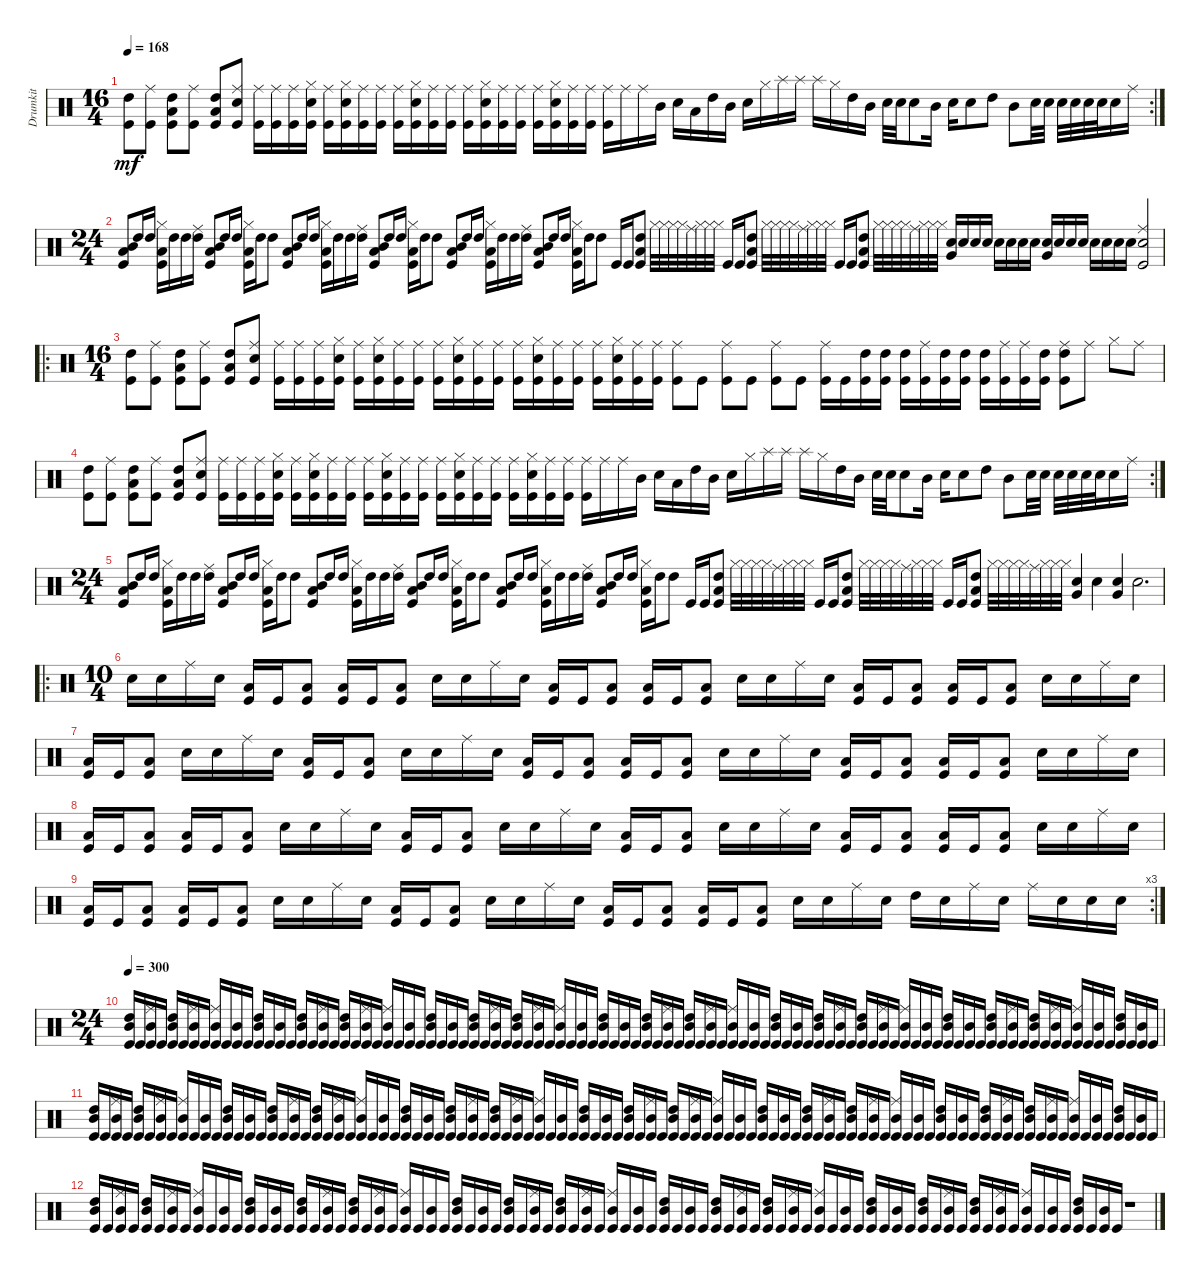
\track ("Drumkit" "Drumkit") {instrument percussion}
\staff {score}
\articulation defaults
\rc 2
\ts (16 4)
\tempo 168
\clef neutral
\ks c
("Kick (hit)" "High Tom (hit)").8{dy mf} ("Kick (hit)" "Ride (middle)").8 ("Kick (hit)" "Low Tom (hit)" "High Tom (hit)").8 ("Kick (hit)" "Ride (middle)").8 ("Kick (hit)" "High Tom (hit)" "Low Tom (hit)").8 ("Kick (hit)" "Ride (middle)" "Snare (hit) 2").8 ("Kick (hit)" "Ride (middle)").16 ("Kick (hit)" "Ride (middle)").16 ("Kick (hit)" "Ride (middle)").16 ("Kick (hit)" "Snare (hit) 2" "Hi-Hat (closed)").16 ("Kick (hit)" "Ride (middle)").16 ("Kick (hit)" "Hi-Hat (closed)" "Snare (hit) 2").16 ("Kick (hit)" "Ride (middle)").16 ("Kick (hit)" "Ride (middle)").16 ("Kick (hit)" "Ride (middle)").16 ("Kick (hit)" "Snare (hit) 2" "Hi-Hat (closed)").16 ("Kick (hit)" "Ride (middle)").16 ("Kick (hit)" "Ride (middle)").16 ("Kick (hit)" "Ride (middle)").16 ("Kick (hit)" "Hi-Hat (closed)" "Snare (hit) 2").16 ("Kick (hit)" "Ride (middle)").16 ("Kick (hit)" "Ride (middle)").16 ("Kick (hit)" "Ride (middle)").16 ("Kick (hit)" "Hi-Hat (closed)" "Snare (hit) 2").16 ("Kick (hit)" "Ride (middle)").16 ("Kick (hit)" "Ride (middle)").16 ("Kick (hit)" "Ride (middle)").16 "Ride (middle)".16 "Ride (middle)".16 "Mid Tom (hit)".16 "Snare (hit) 2".16 "Low Tom (hit)".16 "High Tom (hit)".16 "Mid Tom (hit)".16 "Snare (hit) 2".16 "Hi-Hat (closed)".16 "Splash (hit)".16 "Splash (hit)".16 "Splash (hit)".16 "Hi-Hat (closed)".16 "High Tom (hit)".16 "Mid Tom (hit)".16 "Snare (hit) 2".32 "Snare (hit) 2".32 "Snare (hit) 2".8 "Mid Tom (hit)".16 "Snare (hit) 2".16 "Snare (hit) 2".8 "High Tom (hit)".8 "Mid Tom (hit)".8 "Snare (hit) 2".32 "Snare (hit) 2".32 "Snare (hit) 2".32 "Snare (hit) 2".32 "Snare (hit) 2".32 "Snare (hit) 2".32 "Snare (hit) 2".16 "Ride (middle)".16 |
\ts (24 4)
("Kick (hit)" "Mid Tom (hit)" "Low Tom (hit)").8 "High Tom (hit)".16 "High Tom (hit)".16 ("Hi-Hat (closed)" "Low Tom (hit)" "Kick (hit)").16 "High Tom (hit)".16 "High Tom (hit)".16 ("High Tom (hit)" "Ride (middle)").16 ("Kick (hit)" "Mid Tom (hit)" "Low Tom (hit)").8 "High Tom (hit)".16 "High Tom (hit)".16 ("Hi-Hat (closed)" "Low Tom (hit)" "Kick (hit)").16 "High Tom (hit)".16 "High Tom (hit)".8 ("Kick (hit)" "Mid Tom (hit)" "Low Tom (hit)").8 "High Tom (hit)".16 "High Tom (hit)".16 ("Hi-Hat (closed)" "Low Tom (hit)" "Kick (hit)").16 "High Tom (hit)".16 "High Tom (hit)".16 ("High Tom (hit)" "Ride (middle)").16 ("Kick (hit)" "Mid Tom (hit)" "Low Tom (hit)").8 "High Tom (hit)".16 "High Tom (hit)".16 ("Hi-Hat (closed)" "Low Tom (hit)" "Kick (hit)").16 "High Tom (hit)".16 "High Tom (hit)".8 ("Kick (hit)" "Mid Tom (hit)" "Low Tom (hit)").8 "High Tom (hit)".16 "High Tom (hit)".16 ("Hi-Hat (closed)" "Low Tom (hit)" "Kick (hit)").16 "High Tom (hit)".16 "High Tom (hit)".16 ("High Tom (hit)" "Ride (middle)").16 ("Kick (hit)" "Mid Tom (hit)" "Low Tom (hit)").8 "High Tom (hit)".16 "High Tom (hit)".16 ("Hi-Hat (closed)" "Low Tom (hit)" "Kick (hit)").16 "High Tom (hit)".16 "High Tom (hit)".8 "Kick (hit)".16 "Kick (hit)".16 ("Kick (hit)" "Low Tom (hit)" "High Tom (hit)").8 "Hi-Hat (closed)".32 "Hi-Hat (closed)".32 "Hi-Hat (closed)".32 "Hi-Hat (closed)".32 "Ride (middle)".32 "Hi-Hat (closed)".32 "Hi-Hat (closed)".32 "Hi-Hat (closed)".32 "Kick (hit)".16 "Kick (hit)".16 ("Kick (hit)" "High Tom (hit)" "Low Tom (hit)").8 "Hi-Hat (closed)".32 "Hi-Hat (closed)".32 "Hi-Hat (closed)".32 "Hi-Hat (closed)".32 "Ride (middle)".32 "Hi-Hat (closed)".32 "Hi-Hat (closed)".32 "Hi-Hat (closed)".32 "Kick (hit)".16 "Kick (hit)".16 ("Kick (hit)" "Low Tom (hit)" "High Tom (hit)").8 "Hi-Hat (closed)".32 "Hi-Hat (closed)".32 "Hi-Hat (closed)".32 "Hi-Hat (closed)".32 "Ride (middle)".32 "Hi-Hat (closed)".32 "Hi-Hat (closed)".32 "Hi-Hat (closed)".32 ("Snare (hit) 2" "Very Low Tom (hit)").16 "Snare (hit) 2".16 "Snare (hit) 2".16 "Snare (hit) 2".16 "Snare (hit) 2".16 "Snare (hit) 2".16 "Snare (hit) 2".16 "Snare (hit) 2".16 ("Snare (hit) 2" "Very Low Tom (hit)").16 "Snare (hit) 2".16 "Snare (hit) 2".16 "Snare (hit) 2".16 "Snare (hit) 2".16 "Snare (hit) 2".16 "Snare (hit) 2".16 "Snare (hit) 2".16 ("Snare (hit) 2" "Kick (hit)" "Ride (middle)").2 |
\ro
\ts (16 4)
("Kick (hit)" "High Tom (hit)").8 ("Kick (hit)" "Ride (middle)").8 ("Kick (hit)" "Low Tom (hit)" "High Tom (hit)").8 ("Kick (hit)" "Ride (middle)").8 ("Kick (hit)" "High Tom (hit)" "Low Tom (hit)").8 ("Kick (hit)" "Ride (middle)" "Snare (hit) 2").8 ("Kick (hit)" "Ride (middle)").16 ("Kick (hit)" "Ride (middle)").16 ("Kick (hit)" "Ride (middle)").16 ("Kick (hit)" "Snare (hit) 2" "Hi-Hat (closed)").16 ("Kick (hit)" "Ride (middle)").16 ("Kick (hit)" "Hi-Hat (closed)" "Snare (hit) 2").16 ("Kick (hit)" "Ride (middle)").16 ("Kick (hit)" "Ride (middle)").16 ("Kick (hit)" "Ride (middle)").16 ("Kick (hit)" "Snare (hit) 2" "Hi-Hat (closed)").16 ("Kick (hit)" "Ride (middle)").16 ("Kick (hit)" "Ride (middle)").16 ("Kick (hit)" "Ride (middle)").16 ("Kick (hit)" "Hi-Hat (closed)" "Snare (hit) 2").16 ("Kick (hit)" "Ride (middle)").16 ("Kick (hit)" "Ride (middle)").16 ("Kick (hit)" "Ride (middle)").16 ("Kick (hit)" "Hi-Hat (closed)" "Snare (hit) 2").16 ("Kick (hit)" "Ride (middle)").16 ("Kick (hit)" "Ride (middle)").16 ("Kick (hit)" "Ride (middle)").8 "Kick (hit)".8 ("Kick (hit)" "Ride (middle)").8 "Kick (hit)".8 ("Kick (hit)" "Ride (middle)").8 "Kick (hit)".8 ("Kick (hit)" "Ride (middle)").16 "Kick (hit)".16 ("Kick (hit)" "High Tom (hit)").16 ("Kick (hit)" "High Tom (hit)").16 ("Kick (hit)" "High Tom (hit)").16 ("Kick (hit)" "Ride (middle)").16 ("Kick (hit)" "High Tom (hit)").16 ("Kick (hit)" "High Tom (hit)").16 ("Kick (hit)" "High Tom (hit)").16 ("Kick (hit)" "Ride (middle)").16 ("Kick (hit)" "Ride (middle)").16 ("Kick (hit)" "High Tom (hit)").16 ("Kick (hit)" "High Tom (hit)" "Ride (middle)").8 "Ride (middle)".8 "Hi-Hat (closed)".8 "Ride (middle)".8 |
\rc 2
("Kick (hit)" "High Tom (hit)").8 ("Kick (hit)" "Ride (middle)").8 ("Kick (hit)" "Low Tom (hit)" "High Tom (hit)").8 ("Kick (hit)" "Ride (middle)").8 ("Kick (hit)" "High Tom (hit)" "Low Tom (hit)").8 ("Kick (hit)" "Ride (middle)" "Snare (hit) 2").8 ("Kick (hit)" "Ride (middle)").16 ("Kick (hit)" "Ride (middle)").16 ("Kick (hit)" "Ride (middle)").16 ("Kick (hit)" "Snare (hit) 2" "Hi-Hat (closed)").16 ("Kick (hit)" "Ride (middle)").16 ("Kick (hit)" "Hi-Hat (closed)" "Snare (hit) 2").16 ("Kick (hit)" "Ride (middle)").16 ("Kick (hit)" "Ride (middle)").16 ("Kick (hit)" "Ride (middle)").16 ("Kick (hit)" "Snare (hit) 2" "Hi-Hat (closed)").16 ("Kick (hit)" "Ride (middle)").16 ("Kick (hit)" "Ride (middle)").16 ("Kick (hit)" "Ride (middle)").16 ("Kick (hit)" "Hi-Hat (closed)" "Snare (hit) 2").16 ("Kick (hit)" "Ride (middle)").16 ("Kick (hit)" "Ride (middle)").16 ("Kick (hit)" "Ride (middle)").16 ("Kick (hit)" "Hi-Hat (closed)" "Snare (hit) 2").16 ("Kick (hit)" "Ride (middle)").16 ("Kick (hit)" "Ride (middle)").16 ("Kick (hit)" "Ride (middle)").16 "Ride (middle)".16 "Ride (middle)".16 "Mid Tom (hit)".16 "Snare (hit) 2".16 "Low Tom (hit)".16 "High Tom (hit)".16 "Mid Tom (hit)".16 "Snare (hit) 2".16 "Hi-Hat (closed)".16 "Splash (hit)".16 "Splash (hit)".16 "Splash (hit)".16 "Hi-Hat (closed)".16 "High Tom (hit)".16 "Mid Tom (hit)".16 "Snare (hit) 2".32 "Snare (hit) 2".32 "Snare (hit) 2".8 "Mid Tom (hit)".16 "Snare (hit) 2".16 "Snare (hit) 2".8 "High Tom (hit)".8 "Mid Tom (hit)".8 "Snare (hit) 2".32 "Snare (hit) 2".32 "Snare (hit) 2".32 "Snare (hit) 2".32 "Snare (hit) 2".32 "Snare (hit) 2".32 "Snare (hit) 2".16 "Ride (middle)".16 |
\ts (24 4)
("Kick (hit)" "Mid Tom (hit)" "Low Tom (hit)").8 "High Tom (hit)".16 "High Tom (hit)".16 ("Hi-Hat (closed)" "Low Tom (hit)" "Kick (hit)").16 "High Tom (hit)".16 "High Tom (hit)".16 ("High Tom (hit)" "Ride (middle)").16 ("Kick (hit)" "Mid Tom (hit)" "Low Tom (hit)").8 "High Tom (hit)".16 "High Tom (hit)".16 ("Hi-Hat (closed)" "Low Tom (hit)" "Kick (hit)").16 "High Tom (hit)".16 "High Tom (hit)".8 ("Kick (hit)" "Mid Tom (hit)" "Low Tom (hit)").8 "High Tom (hit)".16 "High Tom (hit)".16 ("Hi-Hat (closed)" "Low Tom (hit)" "Kick (hit)").16 "High Tom (hit)".16 "High Tom (hit)".16 ("High Tom (hit)" "Ride (middle)").16 ("Kick (hit)" "Mid Tom (hit)" "Low Tom (hit)").8 "High Tom (hit)".16 "High Tom (hit)".16 ("Hi-Hat (closed)" "Low Tom (hit)" "Kick (hit)").16 "High Tom (hit)".16 "High Tom (hit)".8 ("Kick (hit)" "Mid Tom (hit)" "Low Tom (hit)").8 "High Tom (hit)".16 "High Tom (hit)".16 ("Hi-Hat (closed)" "Low Tom (hit)" "Kick (hit)").16 "High Tom (hit)".16 "High Tom (hit)".16 ("High Tom (hit)" "Ride (middle)").16 ("Kick (hit)" "Mid Tom (hit)" "Low Tom (hit)").8 "High Tom (hit)".16 "High Tom (hit)".16 ("Hi-Hat (closed)" "Low Tom (hit)" "Kick (hit)").16 "High Tom (hit)".16 "High Tom (hit)".8 "Kick (hit)".16 "Kick (hit)".16 ("Kick (hit)" "Low Tom (hit)" "High Tom (hit)").8 "Hi-Hat (closed)".32 "Hi-Hat (closed)".32 "Hi-Hat (closed)".32 "Hi-Hat (closed)".32 "Ride (middle)".32 "Hi-Hat (closed)".32 "Hi-Hat (closed)".32 "Hi-Hat (closed)".32 "Kick (hit)".16 "Kick (hit)".16 ("Kick (hit)" "High Tom (hit)" "Low Tom (hit)").8 "Hi-Hat (closed)".32 "Hi-Hat (closed)".32 "Hi-Hat (closed)".32 "Hi-Hat (closed)".32 "Ride (middle)".32 "Hi-Hat (closed)".32 "Hi-Hat (closed)".32 "Hi-Hat (closed)".32 "Kick (hit)".16 "Kick (hit)".16 ("Kick (hit)" "High Tom (hit)" "Low Tom (hit)").8 "Hi-Hat (closed)".32 "Hi-Hat (closed)".32 "Hi-Hat (closed)".32 "Hi-Hat (closed)".32 "Ride (middle)".32 "Hi-Hat (closed)".32 "Hi-Hat (closed)".32 "Hi-Hat (closed)".32 ("Snare (hit) 2" "Very Low Tom (hit)").4 "Snare (hit) 2".4 ("Snare (hit) 2" "Very Low Tom (hit)").4 "Snare (hit) 2".2{d} |
\ro
\ts (10 4)
"Snare (hit) 2".16 "Snare (hit) 2".16 "Ride (middle)".16 "Snare (hit) 2".16 ("Kick (hit)" "Low Tom (hit)").16 "Kick (hit)".16 ("Kick (hit)" "Low Tom (hit)").8 ("Kick (hit)" "Low Tom (hit)").16 "Kick (hit)".16 ("Kick (hit)" "Low Tom (hit)").8 "Snare (hit) 2".16 "Snare (hit) 2".16 "Ride (middle)".16 "Snare (hit) 2".16 ("Kick (hit)" "Low Tom (hit)").16 "Kick (hit)".16 ("Kick (hit)" "Low Tom (hit)").8 ("Kick (hit)" "Low Tom (hit)").16 "Kick (hit)".16 ("Kick (hit)" "Low Tom (hit)").8 "Snare (hit) 2".16 "Snare (hit) 2".16 "Ride (middle)".16 "Snare (hit) 2".16 ("Kick (hit)" "Low Tom (hit)").16 "Kick (hit)".16 ("Kick (hit)" "Low Tom (hit)").8 ("Kick (hit)" "Low Tom (hit)").16 "Kick (hit)".16 ("Kick (hit)" "Low Tom (hit)").8 "Snare (hit) 2".16 "Snare (hit) 2".16 "Ride (middle)".16 "Snare (hit) 2".16 |
("Kick (hit)" "Low Tom (hit)").16 "Kick (hit)".16 ("Kick (hit)" "Low Tom (hit)").8 "Snare (hit) 2".16 "Snare (hit) 2".16 "Ride (middle)".16 "Snare (hit) 2".16 ("Kick (hit)" "Low Tom (hit)").16 "Kick (hit)".16 ("Kick (hit)" "Low Tom (hit)").8 "Snare (hit) 2".16 "Snare (hit) 2".16 "Ride (middle)".16 "Snare (hit) 2".16 ("Kick (hit)" "Low Tom (hit)").16 "Kick (hit)".16 ("Kick (hit)" "Low Tom (hit)").8 ("Kick (hit)" "Low Tom (hit)").16 "Kick (hit)".16 ("Kick (hit)" "Low Tom (hit)").8 "Snare (hit) 2".16 "Snare (hit) 2".16 "Ride (middle)".16 "Snare (hit) 2".16 ("Kick (hit)" "Low Tom (hit)").16 "Kick (hit)".16 ("Kick (hit)" "Low Tom (hit)").8 ("Kick (hit)" "Low Tom (hit)").16 "Kick (hit)".16 ("Kick (hit)" "Low Tom (hit)").8 "Snare (hit) 2".16 "Snare (hit) 2".16 "Ride (middle)".16 "Snare (hit) 2".16 |
("Kick (hit)" "Low Tom (hit)").16 "Kick (hit)".16 ("Kick (hit)" "Low Tom (hit)").8 ("Kick (hit)" "Low Tom (hit)").16 "Kick (hit)".16 ("Kick (hit)" "Low Tom (hit)").8 "Snare (hit) 2".16 "Snare (hit) 2".16 "Ride (middle)".16 "Snare (hit) 2".16 ("Kick (hit)" "Low Tom (hit)").16 "Kick (hit)".16 ("Kick (hit)" "Low Tom (hit)").8 "Snare (hit) 2".16 "Snare (hit) 2".16 "Ride (middle)".16 "Snare (hit) 2".16 ("Kick (hit)" "Low Tom (hit)").16 "Kick (hit)".16 ("Kick (hit)" "Low Tom (hit)").8 "Snare (hit) 2".16 "Snare (hit) 2".16 "Ride (middle)".16 "Snare (hit) 2".16 ("Kick (hit)" "Low Tom (hit)").16 "Kick (hit)".16 ("Kick (hit)" "Low Tom (hit)").8 ("Kick (hit)" "Low Tom (hit)").16 "Kick (hit)".16 ("Kick (hit)" "Low Tom (hit)").8 "Snare (hit) 2".16 "Snare (hit) 2".16 "Ride (middle)".16 "Snare (hit) 2".16 |
\rc 3
("Kick (hit)" "Low Tom (hit)").16 "Kick (hit)".16 ("Kick (hit)" "Low Tom (hit)").8 ("Kick (hit)" "Low Tom (hit)").16 "Kick (hit)".16 ("Kick (hit)" "Low Tom (hit)").8 "Snare (hit) 2".16 "Snare (hit) 2".16 "Ride (middle)".16 "Snare (hit) 2".16 ("Kick (hit)" "Low Tom (hit)").16 "Kick (hit)".16 ("Kick (hit)" "Low Tom (hit)").8 "Snare (hit) 2".16 "Snare (hit) 2".16 "Ride (middle)".16 "Snare (hit) 2".16 ("Kick (hit)" "Low Tom (hit)").16 "Kick (hit)".16 ("Kick (hit)" "Low Tom (hit)").8 ("Kick (hit)" "Low Tom (hit)").16 "Kick (hit)".16 ("Kick (hit)" "Low Tom (hit)").8 "Snare (hit) 2".16 "Snare (hit) 2".16 "Ride (middle)".16 "Snare (hit) 2".16 "High Tom (hit)".16 "Snare (hit) 2".16 "Ride (middle)".16 "Snare (hit) 2".16 "Ride (middle)".16 "Snare (hit) 2".16 "Snare (hit) 2".16 "Snare (hit) 2".16 |
\ts (24 4)
\tempo 300
("Kick (hit)" "High Tom (hit)" "Mid Tom (hit)").16 "Kick (hit)".16 ("Kick (hit)" "Mid Tom (hit)" "Ride (middle)").16 "Kick (hit)".16 ("Kick (hit)" "Mid Tom (hit)" "High Tom (hit)").16 "Kick (hit)".16 ("Kick (hit)" "Mid Tom (hit)" "Ride (middle)").16 "Kick (hit)".16 ("Kick (hit)" "Ride (middle)" "Mid Tom (hit)").16 "Kick (hit)".16 ("Kick (hit)" "Mid Tom (hit)").16 "Kick (hit)".16 ("Kick (hit)" "Mid Tom (hit)" "High Tom (hit)").16 "Kick (hit)".16 ("Kick (hit)" "Mid Tom (hit)").16 "Kick (hit)".16 ("Kick (hit)" "High Tom (hit)" "Mid Tom (hit)").16 "Kick (hit)".16 ("Kick (hit)" "Mid Tom (hit)" "Ride (middle)").16 "Kick (hit)".16 ("Kick (hit)" "Mid Tom (hit)" "High Tom (hit)").16 "Kick (hit)".16 ("Kick (hit)" "Mid Tom (hit)" "Ride (middle)").16 "Kick (hit)".16 ("Kick (hit)" "Ride (middle)" "Mid Tom (hit)").16 "Kick (hit)".16 ("Kick (hit)" "Mid Tom (hit)").16 "Kick (hit)".16 ("Kick (hit)" "Mid Tom (hit)" "High Tom (hit)").16 "Kick (hit)".16 ("Kick (hit)" "Mid Tom (hit)").16 "Kick (hit)".16 ("Kick (hit)" "High Tom (hit)" "Mid Tom (hit)").16 "Kick (hit)".16 ("Kick (hit)" "Mid Tom (hit)" "Ride (middle)").16 "Kick (hit)".16 ("Kick (hit)" "Mid Tom (hit)" "High Tom (hit)").16 "Kick (hit)".16 ("Kick (hit)" "Mid Tom (hit)" "Ride (middle)").16 "Kick (hit)".16 ("Kick (hit)" "Ride (middle)" "Mid Tom (hit)").16 "Kick (hit)".16 ("Kick (hit)" "Mid Tom (hit)").16 "Kick (hit)".16 ("Kick (hit)" "Mid Tom (hit)" "High Tom (hit)").16 "Kick (hit)".16 ("Kick (hit)" "Mid Tom (hit)").16 "Kick (hit)".16 ("Kick (hit)" "High Tom (hit)" "Mid Tom (hit)").16 "Kick (hit)".16 ("Kick (hit)" "Mid Tom (hit)" "Ride (middle)").16 "Kick (hit)".16 ("Kick (hit)" "Mid Tom (hit)" "High Tom (hit)").16 "Kick (hit)".16 ("Kick (hit)" "Mid Tom (hit)" "Ride (middle)").16 "Kick (hit)".16 ("Kick (hit)" "Ride (middle)" "Mid Tom (hit)").16 "Kick (hit)".16 ("Kick (hit)" "Mid Tom (hit)").16 "Kick (hit)".16 ("Kick (hit)" "Mid Tom (hit)" "High Tom (hit)").16 "Kick (hit)".16 ("Kick (hit)" "Mid Tom (hit)").16 "Kick (hit)".16 ("Kick (hit)" "High Tom (hit)" "Mid Tom (hit)").16 "Kick (hit)".16 ("Kick (hit)" "Mid Tom (hit)" "Ride (middle)").16 "Kick (hit)".16 ("Kick (hit)" "Mid Tom (hit)" "High Tom (hit)").16 "Kick (hit)".16 ("Kick (hit)" "Mid Tom (hit)" "Ride (middle)").16 "Kick (hit)".16 ("Kick (hit)" "Ride (middle)" "Mid Tom (hit)").16 "Kick (hit)".16 ("Kick (hit)" "Mid Tom (hit)").16 "Kick (hit)".16 ("Kick (hit)" "Mid Tom (hit)" "High Tom (hit)").16 "Kick (hit)".16 ("Kick (hit)" "Mid Tom (hit)").16 "Kick (hit)".16 ("Kick (hit)" "High Tom (hit)" "Mid Tom (hit)").16 "Kick (hit)".16 ("Kick (hit)" "Mid Tom (hit)" "Ride (middle)").16 "Kick (hit)".16 ("Kick (hit)" "Mid Tom (hit)" "High Tom (hit)").16 "Kick (hit)".16 ("Kick (hit)" "Mid Tom (hit)" "Ride (middle)").16 "Kick (hit)".16 ("Kick (hit)" "Ride (middle)" "Mid Tom (hit)").16 "Kick (hit)".16 ("Kick (hit)" "Mid Tom (hit)").16 "Kick (hit)".16 ("Kick (hit)" "Mid Tom (hit)" "High Tom (hit)").16 "Kick (hit)".16 ("Kick (hit)" "Mid Tom (hit)").16 "Kick (hit)".16 |
("Kick (hit)" "High Tom (hit)" "Mid Tom (hit)").16 "Kick (hit)".16 ("Kick (hit)" "Mid Tom (hit)" "Ride (middle)").16 "Kick (hit)".16 ("Kick (hit)" "Mid Tom (hit)" "High Tom (hit)").16 "Kick (hit)".16 ("Kick (hit)" "Mid Tom (hit)" "Ride (middle)").16 "Kick (hit)".16 ("Kick (hit)" "Ride (middle)" "Mid Tom (hit)").16 "Kick (hit)".16 ("Kick (hit)" "Mid Tom (hit)").16 "Kick (hit)".16 ("Kick (hit)" "Mid Tom (hit)" "High Tom (hit)").16 "Kick (hit)".16 ("Kick (hit)" "Mid Tom (hit)").16 "Kick (hit)".16 ("Kick (hit)" "High Tom (hit)" "Mid Tom (hit)").16 "Kick (hit)".16 ("Kick (hit)" "Mid Tom (hit)" "Ride (middle)").16 "Kick (hit)".16 ("Kick (hit)" "Mid Tom (hit)" "High Tom (hit)").16 "Kick (hit)".16 ("Kick (hit)" "Mid Tom (hit)" "Ride (middle)").16 "Kick (hit)".16 ("Kick (hit)" "Ride (middle)" "Mid Tom (hit)").16 "Kick (hit)".16 ("Kick (hit)" "Mid Tom (hit)").16 "Kick (hit)".16 ("Kick (hit)" "Mid Tom (hit)" "High Tom (hit)").16 "Kick (hit)".16 ("Kick (hit)" "Mid Tom (hit)").16 "Kick (hit)".16 ("Kick (hit)" "High Tom (hit)" "Mid Tom (hit)").16 "Kick (hit)".16 ("Kick (hit)" "Mid Tom (hit)" "Ride (middle)").16 "Kick (hit)".16 ("Kick (hit)" "Mid Tom (hit)" "High Tom (hit)").16 "Kick (hit)".16 ("Kick (hit)" "Mid Tom (hit)" "Ride (middle)").16 "Kick (hit)".16 ("Kick (hit)" "Ride (middle)" "Mid Tom (hit)").16 "Kick (hit)".16 ("Kick (hit)" "Mid Tom (hit)").16 "Kick (hit)".16 ("Kick (hit)" "Mid Tom (hit)" "High Tom (hit)").16 "Kick (hit)".16 ("Kick (hit)" "Mid Tom (hit)").16 "Kick (hit)".16 ("Kick (hit)" "High Tom (hit)" "Mid Tom (hit)").16 "Kick (hit)".16 ("Kick (hit)" "Mid Tom (hit)" "Ride (middle)").16 "Kick (hit)".16 ("Kick (hit)" "Mid Tom (hit)" "High Tom (hit)").16 "Kick (hit)".16 ("Kick (hit)" "Mid Tom (hit)" "Ride (middle)").16 "Kick (hit)".16 ("Kick (hit)" "Ride (middle)" "Mid Tom (hit)").16 "Kick (hit)".16 ("Kick (hit)" "Mid Tom (hit)").16 "Kick (hit)".16 ("Kick (hit)" "Mid Tom (hit)" "High Tom (hit)").16 "Kick (hit)".16 ("Kick (hit)" "Mid Tom (hit)").16 "Kick (hit)".16 ("Kick (hit)" "High Tom (hit)" "Mid Tom (hit)").16 "Kick (hit)".16 ("Kick (hit)" "Mid Tom (hit)" "Ride (middle)").16 "Kick (hit)".16 ("Kick (hit)" "Mid Tom (hit)" "High Tom (hit)").16 "Kick (hit)".16 ("Kick (hit)" "Mid Tom (hit)" "Ride (middle)").16 "Kick (hit)".16 ("Kick (hit)" "Ride (middle)" "Mid Tom (hit)").16 "Kick (hit)".16 ("Kick (hit)" "Mid Tom (hit)").16 "Kick (hit)".16 ("Kick (hit)" "Mid Tom (hit)" "High Tom (hit)").16 "Kick (hit)".16 ("Kick (hit)" "Mid Tom (hit)").16 "Kick (hit)".16 ("Kick (hit)" "High Tom (hit)" "Mid Tom (hit)").16 "Kick (hit)".16 ("Kick (hit)" "Mid Tom (hit)" "Ride (middle)").16 "Kick (hit)".16 ("Kick (hit)" "Mid Tom (hit)" "High Tom (hit)").16 "Kick (hit)".16 ("Kick (hit)" "Mid Tom (hit)" "Ride (middle)").16 "Kick (hit)".16 ("Kick (hit)" "Ride (middle)" "Mid Tom (hit)").16 "Kick (hit)".16 ("Kick (hit)" "Mid Tom (hit)").16 "Kick (hit)".16 ("Kick (hit)" "Mid Tom (hit)" "High Tom (hit)").16 "Kick (hit)".16 ("Kick (hit)" "Mid Tom (hit)").16 "Kick (hit)".16 |
("Kick (hit)" "High Tom (hit)" "Mid Tom (hit)").16 "Kick (hit)".16 ("Kick (hit)" "Mid Tom (hit)" "Ride (middle)").16 "Kick (hit)".16 ("Kick (hit)" "Mid Tom (hit)" "High Tom (hit)").16 "Kick (hit)".16 ("Kick (hit)" "Mid Tom (hit)" "Ride (middle)").16 "Kick (hit)".16 ("Kick (hit)" "Ride (middle)" "Mid Tom (hit)").16 "Kick (hit)".16 ("Kick (hit)" "Mid Tom (hit)").16 "Kick (hit)".16 ("Kick (hit)" "Mid Tom (hit)" "High Tom (hit)").16 "Kick (hit)".16 ("Kick (hit)" "Mid Tom (hit)").16 "Kick (hit)".16 ("Kick (hit)" "High Tom (hit)" "Mid Tom (hit)").16 "Kick (hit)".16 ("Kick (hit)" "Mid Tom (hit)" "Ride (middle)").16 "Kick (hit)".16 ("Kick (hit)" "Mid Tom (hit)" "High Tom (hit)").16 "Kick (hit)".16 ("Kick (hit)" "Mid Tom (hit)" "Ride (middle)").16 "Kick (hit)".16 ("Kick (hit)" "Ride (middle)" "Mid Tom (hit)").16 "Kick (hit)".16 ("Kick (hit)" "Mid Tom (hit)").16 "Kick (hit)".16 ("Kick (hit)" "Mid Tom (hit)" "High Tom (hit)").16 "Kick (hit)".16 ("Kick (hit)" "Mid Tom (hit)").16 "Kick (hit)".16 ("Kick (hit)" "High Tom (hit)" "Mid Tom (hit)").16 "Kick (hit)".16 ("Kick (hit)" "Mid Tom (hit)" "Ride (middle)").16 "Kick (hit)".16 ("Kick (hit)" "Mid Tom (hit)" "High Tom (hit)").16 "Kick (hit)".16 ("Kick (hit)" "Mid Tom (hit)" "Ride (middle)").16 "Kick (hit)".16 ("Kick (hit)" "Ride (middle)" "Mid Tom (hit)").16 "Kick (hit)".16 ("Kick (hit)" "Mid Tom (hit)").16 "Kick (hit)".16 ("Kick (hit)" "Mid Tom (hit)" "High Tom (hit)").16 "Kick (hit)".16 ("Kick (hit)" "Mid Tom (hit)").16 "Kick (hit)".16 ("Kick (hit)" "High Tom (hit)" "Mid Tom (hit)").16 "Kick (hit)".16 ("Kick (hit)" "Mid Tom (hit)" "Ride (middle)").16 "Kick (hit)".16 ("Kick (hit)" "Mid Tom (hit)" "High Tom (hit)").16 "Kick (hit)".16 ("Kick (hit)" "Mid Tom (hit)" "Ride (middle)").16 "Kick (hit)".16 ("Kick (hit)" "Ride (middle)" "Mid Tom (hit)").16 "Kick (hit)".16 ("Kick (hit)" "Mid Tom (hit)").16 "Kick (hit)".16 ("Kick (hit)" "Mid Tom (hit)" "High Tom (hit)").16 "Kick (hit)".16 ("Kick (hit)" "Mid Tom (hit)").16 "Kick (hit)".16 ("Kick (hit)" "High Tom (hit)" "Mid Tom (hit)").16 "Kick (hit)".16 ("Kick (hit)" "Mid Tom (hit)" "Ride (middle)").16 "Kick (hit)".16 ("Kick (hit)" "Mid Tom (hit)" "High Tom (hit)").16 "Kick (hit)".16 ("Kick (hit)" "Mid Tom (hit)" "Ride (middle)").16 "Kick (hit)".16 ("Kick (hit)" "Ride (middle)" "Mid Tom (hit)").16 "Kick (hit)".16 ("Kick (hit)" "Mid Tom (hit)").16 "Kick (hit)".16 ("Kick (hit)" "Mid Tom (hit)" "High Tom (hit)").16 "Kick (hit)".16 ("Kick (hit)" "Mid Tom (hit)").16 "Kick (hit)".16 r.1
